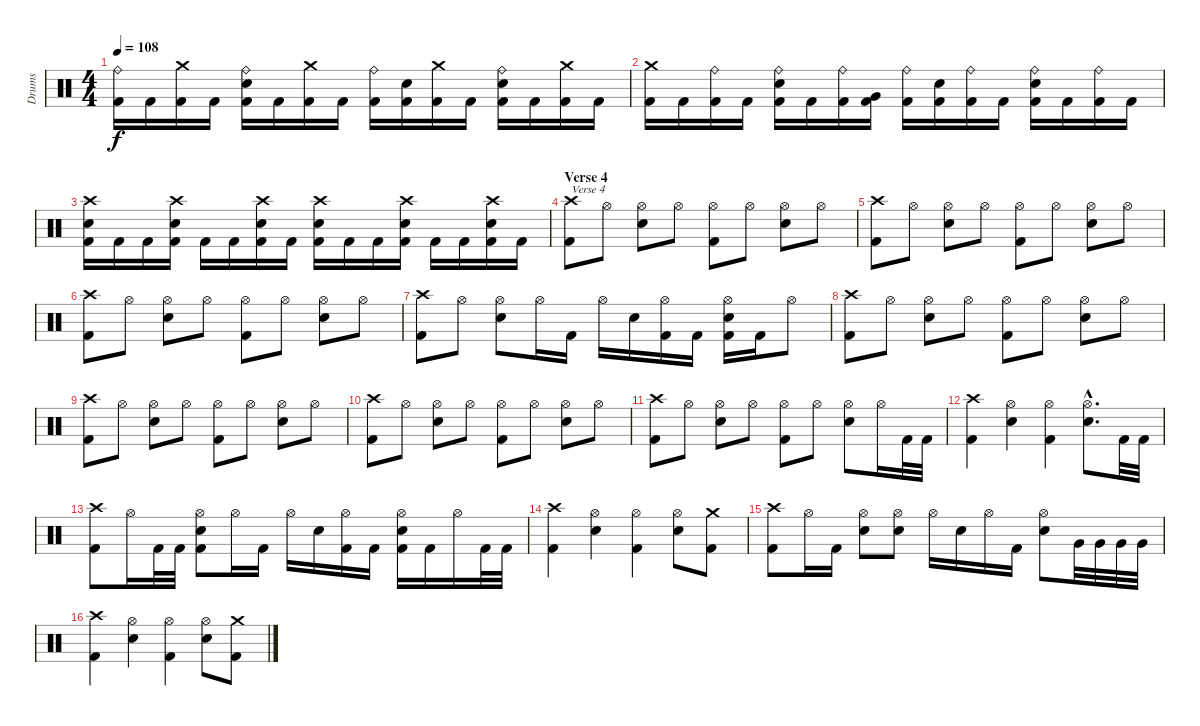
\track ("Drums" "Drums") {instrument percussion}
\staff {score}
\articulation defaults
\ts (4 4)
\tempo 108
\clef neutral
\ks c
("Ride (bell)" "Kick (hit) 2").16{dy f} "Kick (hit) 2".16 ("Crash medium (hit)" "Kick (hit) 2").16 "Kick (hit) 2".16 ("Ride (bell)" "Electric Snare (hit)" "Kick (hit) 2").16 "Kick (hit) 2".16 ("Crash medium (hit)" "Kick (hit) 2").16 "Kick (hit) 2".16 ("Ride (bell)" "Kick (hit) 2").16 ("Electric Snare (hit)" "Kick (hit) 2").16 ("Crash medium (hit)" "Kick (hit) 2").16 "Kick (hit) 2".16 ("Ride (bell)" "Electric Snare (hit)" "Kick (hit) 2").16 "Kick (hit) 2".16 ("Crash medium (hit)" "Kick (hit) 2").16 "Kick (hit) 2".16 |
("Crash medium (hit)" "Kick (hit) 2").16 "Kick (hit) 2".16 ("Ride (bell)" "Kick (hit) 2").16 "Kick (hit) 2".16 ("Ride (bell)" "Electric Snare (hit)" "Kick (hit) 2").16 "Kick (hit) 2".16 ("Ride (bell)" "Kick (hit) 2").16 ("Very Low Tom (hit)" "Kick (hit) 2").16 ("Ride (bell)" "Kick (hit) 2").16 ("Electric Snare (hit)" "Kick (hit) 2").16 ("Ride (bell)" "Kick (hit) 2").16 "Kick (hit) 2".16 ("Ride (bell)" "Electric Snare (hit)" "Kick (hit) 2").16 "Kick (hit) 2".16 ("Ride (bell)" "Kick (hit) 2").16 "Kick (hit) 2".16 |
("Crash high (hit)" "Electric Snare (hit)" "Kick (hit) 2").16 "Kick (hit) 2".16 "Kick (hit) 2".16 ("Crash high (hit)" "Electric Snare (hit)" "Kick (hit) 2").16 "Kick (hit) 2".16 "Kick (hit) 2".16 ("Crash high (hit)" "Electric Snare (hit)" "Kick (hit) 2").16 "Kick (hit) 2".16 ("Crash high (hit)" "Electric Snare (hit)" "Kick (hit) 2").16 "Kick (hit) 2".16 "Kick (hit) 2".16 ("Crash high (hit)" "Electric Snare (hit)" "Kick (hit) 2").16 "Kick (hit) 2".16 "Kick (hit) 2".16 ("Crash high (hit)" "Electric Snare (hit)" "Kick (hit) 2").16 "Kick (hit) 2".16 |
\section ("" "Verse 4")
("Crash high (hit)" "Kick (hit) 2").8{txt "Verse 4"} "Hi-Hat (open)".8 ("Hi-Hat (open)" "Electric Snare (hit)").8 "Hi-Hat (open)".8 ("Hi-Hat (open)" "Kick (hit) 2").8 "Hi-Hat (open)".8 ("Hi-Hat (open)" "Electric Snare (hit)").8 "Hi-Hat (open)".8 |
("Crash high (hit)" "Kick (hit) 2").8 "Hi-Hat (open)".8 ("Hi-Hat (open)" "Electric Snare (hit)").8 "Hi-Hat (open)".8 ("Hi-Hat (open)" "Kick (hit) 2").8 "Hi-Hat (open)".8 ("Hi-Hat (open)" "Electric Snare (hit)").8 "Hi-Hat (open)".8 |
("Crash high (hit)" "Kick (hit) 2").8 "Hi-Hat (open)".8 ("Hi-Hat (open)" "Electric Snare (hit)").8 "Hi-Hat (open)".8 ("Hi-Hat (open)" "Kick (hit) 2").8 "Hi-Hat (open)".8 ("Hi-Hat (open)" "Electric Snare (hit)").8 "Hi-Hat (open)".8 |
("Crash high (hit)" "Kick (hit) 2").8 "Hi-Hat (open)".8 ("Hi-Hat (open)" "Electric Snare (hit)").8 "Hi-Hat (open)".16 "Kick (hit) 2".16 "Hi-Hat (open)".16 "Electric Snare (hit)".16 ("Hi-Hat (open)" "Kick (hit) 2").16 "Kick (hit) 2".16 ("Hi-Hat (open)" "Electric Snare (hit)" "Kick (hit) 2").16 "Kick (hit) 2".16 "Hi-Hat (open)".8 |
("Crash high (hit)" "Kick (hit) 2").8 "Hi-Hat (open)".8 ("Hi-Hat (open)" "Electric Snare (hit)").8 "Hi-Hat (open)".8 ("Hi-Hat (open)" "Kick (hit) 2").8 "Hi-Hat (open)".8 ("Hi-Hat (open)" "Electric Snare (hit)").8 "Hi-Hat (open)".8 |
("Crash high (hit)" "Kick (hit) 2").8 "Hi-Hat (open)".8 ("Hi-Hat (open)" "Electric Snare (hit)").8 "Hi-Hat (open)".8 ("Hi-Hat (open)" "Kick (hit) 2").8 "Hi-Hat (open)".8 ("Hi-Hat (open)" "Electric Snare (hit)").8 "Hi-Hat (open)".8 |
("Crash high (hit)" "Kick (hit) 2").8 "Hi-Hat (open)".8 ("Hi-Hat (open)" "Electric Snare (hit)").8 "Hi-Hat (open)".8 ("Hi-Hat (open)" "Kick (hit) 2").8 "Hi-Hat (open)".8 ("Hi-Hat (open)" "Electric Snare (hit)").8 "Hi-Hat (open)".8 |
("Crash high (hit)" "Kick (hit) 2").8 "Hi-Hat (open)".8 ("Hi-Hat (open)" "Electric Snare (hit)").8 "Hi-Hat (open)".8 ("Hi-Hat (open)" "Kick (hit) 2").8 "Hi-Hat (open)".8 ("Hi-Hat (open)" "Electric Snare (hit)").8 "Hi-Hat (open)".16 "Kick (hit) 2".32 "Kick (hit) 2".32 |
("Crash high (hit)" "Kick (hit) 2").4 ("Hi-Hat (open)" "Electric Snare (hit)").4 ("Hi-Hat (open)" "Kick (hit) 2").4 ("Hi-Hat (open)"{hac} "Electric Snare (hit)"{hac}).8{d} "Kick (hit) 2".32 "Kick (hit) 2".32 |
("Crash high (hit)" "Kick (hit) 2").8 "Hi-Hat (open)".16 "Kick (hit) 2".32 "Kick (hit) 2".32 ("Hi-Hat (open)" "Electric Snare (hit)" "Kick (hit) 2").8 "Hi-Hat (open)".16 "Kick (hit) 2".16 "Hi-Hat (open)".16 "Electric Snare (hit)".16 ("Hi-Hat (open)" "Kick (hit) 2").16 "Kick (hit) 2".16 ("Hi-Hat (open)" "Electric Snare (hit)" "Kick (hit) 2").16 "Kick (hit) 2".16 "Hi-Hat (open)".16 "Kick (hit) 2".32 "Kick (hit) 2".32 |
("Crash high (hit)" "Kick (hit) 2").4 ("Hi-Hat (open)" "Electric Snare (hit)").4 ("Hi-Hat (open)" "Kick (hit) 2").4 ("Hi-Hat (open)" "Electric Snare (hit)").8 ("Crash medium (hit)" "Kick (hit) 2").8 |
("Crash high (hit)" "Kick (hit) 2").8 "Hi-Hat (open)".16 "Kick (hit) 2".16 ("Hi-Hat (open)" "Electric Snare (hit)").8 ("Hi-Hat (open)" "Electric Snare (hit)").8 "Hi-Hat (open)".16 "Electric Snare (hit)".16 "Hi-Hat (open)".16 "Kick (hit) 2".16 ("Hi-Hat (open)" "Electric Snare (hit)").8 "Very Low Tom (hit)".32 "Very Low Tom (hit)".32 "Very Low Tom (hit)".32 "Very Low Tom (hit)".32 |
("Crash high (hit)" "Kick (hit) 2").4 ("Hi-Hat (open)" "Electric Snare (hit)").4 ("Hi-Hat (open)" "Kick (hit) 2").4 ("Hi-Hat (open)" "Electric Snare (hit)").8 ("Crash medium (hit)" "Kick (hit) 2").8
